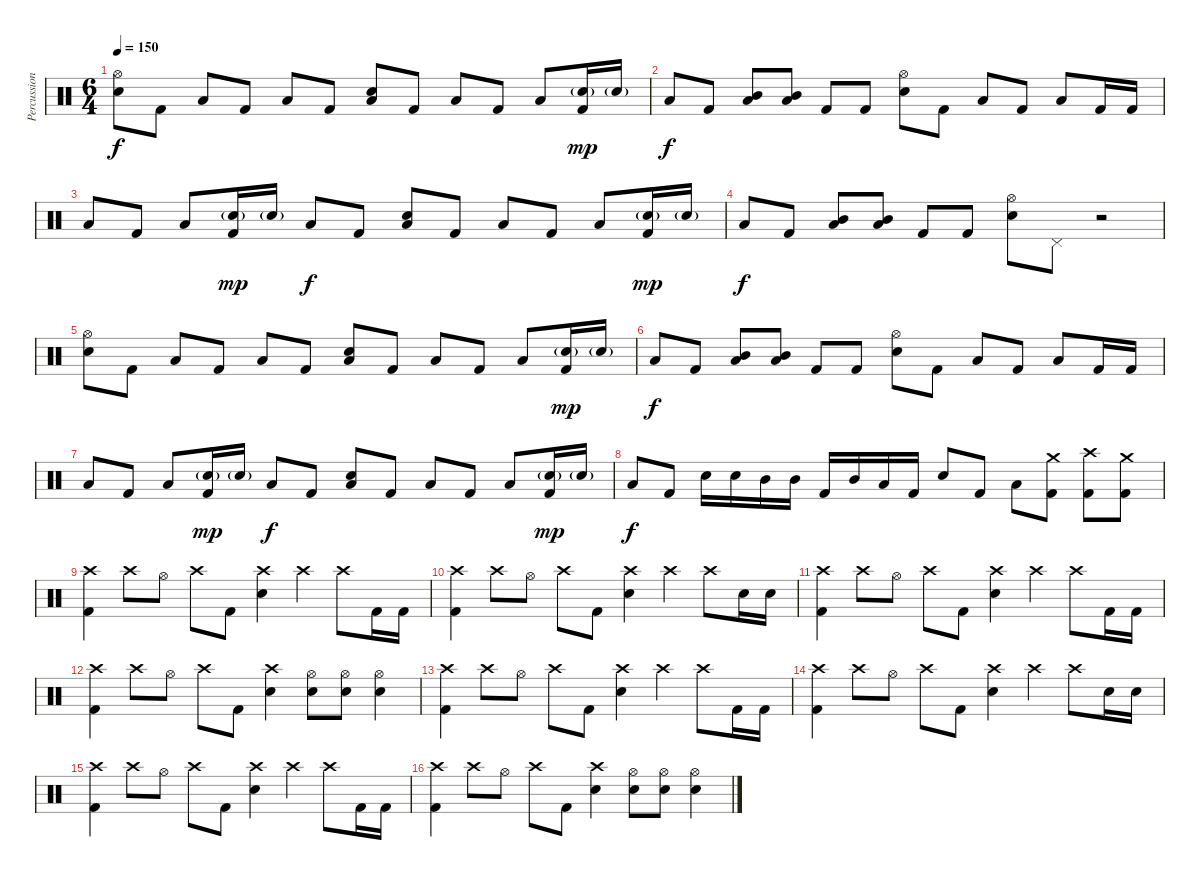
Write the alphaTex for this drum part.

\track ("Percussion" "Percussion") {instrument percussion}
\staff {score}
\articulation defaults
\ts (6 4)
\tempo 150
\clef neutral
\ks c
("Hi-Hat (open)" "Electric Snare (hit)").8{dy f} "Kick (hit) 2".8 "Low Floor Tom (hit)".8 "Kick (hit) 2".8 "Low Floor Tom (hit)".8 "Kick (hit) 2".8 ("Low Floor Tom (hit)" "Electric Snare (hit)").8 "Kick (hit) 2".8 "Low Floor Tom (hit)".8 "Kick (hit) 2".8 "Low Floor Tom (hit)".8 ("Electric Snare (hit)"{g} "Kick (hit) 2").16{dy mp} "Electric Snare (hit)"{g}.16 |
"Low Floor Tom (hit)".8{dy f} "Kick (hit) 2".8 ("Low Floor Tom (hit)" "Mid Tom (hit)").8 ("Low Floor Tom (hit)" "Mid Tom (hit)").8 "Kick (hit) 2".8 "Kick (hit) 2".8 ("Hi-Hat (open)" "Electric Snare (hit)").8 "Kick (hit) 2".8 "Low Floor Tom (hit)".8 "Kick (hit) 2".8 "Low Floor Tom (hit)".8 "Kick (hit) 2".16 "Kick (hit) 2".16 |
"Low Floor Tom (hit)".8 "Kick (hit) 2".8 "Low Floor Tom (hit)".8 ("Electric Snare (hit)"{g} "Kick (hit) 2").16{dy mp} "Electric Snare (hit)"{g}.16 "Low Floor Tom (hit)".8{dy f} "Kick (hit) 2".8 ("Low Floor Tom (hit)" "Electric Snare (hit)").8 "Kick (hit) 2".8 "Low Floor Tom (hit)".8 "Kick (hit) 2".8 "Low Floor Tom (hit)".8 ("Electric Snare (hit)"{g} "Kick (hit) 2").16{dy mp} "Electric Snare (hit)"{g}.16 |
"Low Floor Tom (hit)".8{dy f} "Kick (hit) 2".8 ("Low Floor Tom (hit)" "Mid Tom (hit)").8 ("Low Floor Tom (hit)" "Mid Tom (hit)").8 "Kick (hit) 2".8 "Kick (hit) 2".8 ("Hi-Hat (open)" "Electric Snare (hit)").8 "Pedal Hi-Hat (hit)".8 r.2 |
("Hi-Hat (open)" "Electric Snare (hit)").8 "Kick (hit) 2".8 "Low Floor Tom (hit)".8 "Kick (hit) 2".8 "Low Floor Tom (hit)".8 "Kick (hit) 2".8 ("Low Floor Tom (hit)" "Electric Snare (hit)").8 "Kick (hit) 2".8 "Low Floor Tom (hit)".8 "Kick (hit) 2".8 "Low Floor Tom (hit)".8 ("Electric Snare (hit)"{g} "Kick (hit) 2").16{dy mp} "Electric Snare (hit)"{g}.16 |
"Low Floor Tom (hit)".8{dy f} "Kick (hit) 2".8 ("Low Floor Tom (hit)" "Mid Tom (hit)").8 ("Low Floor Tom (hit)" "Mid Tom (hit)").8 "Kick (hit) 2".8 "Kick (hit) 2".8 ("Hi-Hat (open)" "Electric Snare (hit)").8 "Kick (hit) 2".8 "Low Floor Tom (hit)".8 "Kick (hit) 2".8 "Low Floor Tom (hit)".8 "Kick (hit) 2".16 "Kick (hit) 2".16 |
"Low Floor Tom (hit)".8 "Kick (hit) 2".8 "Low Floor Tom (hit)".8 ("Electric Snare (hit)"{g} "Kick (hit) 2").16{dy mp} "Electric Snare (hit)"{g}.16 "Low Floor Tom (hit)".8{dy f} "Kick (hit) 2".8 ("Low Floor Tom (hit)" "Electric Snare (hit)").8 "Kick (hit) 2".8 "Low Floor Tom (hit)".8 "Kick (hit) 2".8 "Low Floor Tom (hit)".8 ("Electric Snare (hit)"{g} "Kick (hit) 2").16{dy mp} "Electric Snare (hit)"{g}.16 |
"Low Floor Tom (hit)".8{dy f} "Kick (hit) 2".8 "Electric Snare (hit)".16 "Electric Snare (hit)".16 "Mid Tom (hit)".16 "Mid Tom (hit)".16 "Kick (hit) 2".16 "Mid Tom (hit)".16 "Low Floor Tom (hit)".16 "Kick (hit) 2".16 "Electric Snare (hit)".8 "Kick (hit) 2".8 "Low Floor Tom (hit)".8 ("Crash medium (hit)" "Kick (hit) 2").8 ("Crash high (hit)" "Kick (hit) 2").8 ("Crash medium (hit)" "Kick (hit) 2").8 |
("Crash high (hit)" "Kick (hit) 2").4 "Crash high (hit)".8 "Hi-Hat (open)".8 "Crash high (hit)".8 "Kick (hit) 2".8 ("Crash high (hit)" "Electric Snare (hit)").4 "Crash high (hit)".4 "Crash high (hit)".8 "Kick (hit) 2".16 "Kick (hit) 2".16 |
("Crash high (hit)" "Kick (hit) 2").4 "Crash high (hit)".8 "Hi-Hat (open)".8 "Crash high (hit)".8 "Kick (hit) 2".8 ("Crash high (hit)" "Electric Snare (hit)").4 "Crash high (hit)".4 "Crash high (hit)".8 "Electric Snare (hit)".16 "Electric Snare (hit)".16 |
("Crash high (hit)" "Kick (hit) 2").4 "Crash high (hit)".8 "Hi-Hat (open)".8 "Crash high (hit)".8 "Kick (hit) 2".8 ("Crash high (hit)" "Electric Snare (hit)").4 "Crash high (hit)".4 "Crash high (hit)".8 "Kick (hit) 2".16 "Kick (hit) 2".16 |
("Crash high (hit)" "Kick (hit) 2").4 "Crash high (hit)".8 "Hi-Hat (open)".8 "Crash high (hit)".8 "Kick (hit) 2".8 ("Crash high (hit)" "Electric Snare (hit)").4 ("Hi-Hat (open)" "Electric Snare (hit)").8 ("Hi-Hat (open)" "Electric Snare (hit)").8 ("Hi-Hat (open)" "Electric Snare (hit)").4 |
("Crash high (hit)" "Kick (hit) 2").4 "Crash high (hit)".8 "Hi-Hat (open)".8 "Crash high (hit)".8 "Kick (hit) 2".8 ("Crash high (hit)" "Electric Snare (hit)").4 "Crash high (hit)".4 "Crash high (hit)".8 "Kick (hit) 2".16 "Kick (hit) 2".16 |
("Crash high (hit)" "Kick (hit) 2").4 "Crash high (hit)".8 "Hi-Hat (open)".8 "Crash high (hit)".8 "Kick (hit) 2".8 ("Crash high (hit)" "Electric Snare (hit)").4 "Crash high (hit)".4 "Crash high (hit)".8 "Electric Snare (hit)".16 "Electric Snare (hit)".16 |
("Crash high (hit)" "Kick (hit) 2").4 "Crash high (hit)".8 "Hi-Hat (open)".8 "Crash high (hit)".8 "Kick (hit) 2".8 ("Crash high (hit)" "Electric Snare (hit)").4 "Crash high (hit)".4 "Crash high (hit)".8 "Kick (hit) 2".16 "Kick (hit) 2".16 |
("Crash high (hit)" "Kick (hit) 2").4 "Crash high (hit)".8 "Hi-Hat (open)".8 "Crash high (hit)".8 "Kick (hit) 2".8 ("Crash high (hit)" "Electric Snare (hit)").4 ("Hi-Hat (open)" "Electric Snare (hit)").8 ("Hi-Hat (open)" "Electric Snare (hit)").8 ("Hi-Hat (open)" "Electric Snare (hit)").4
